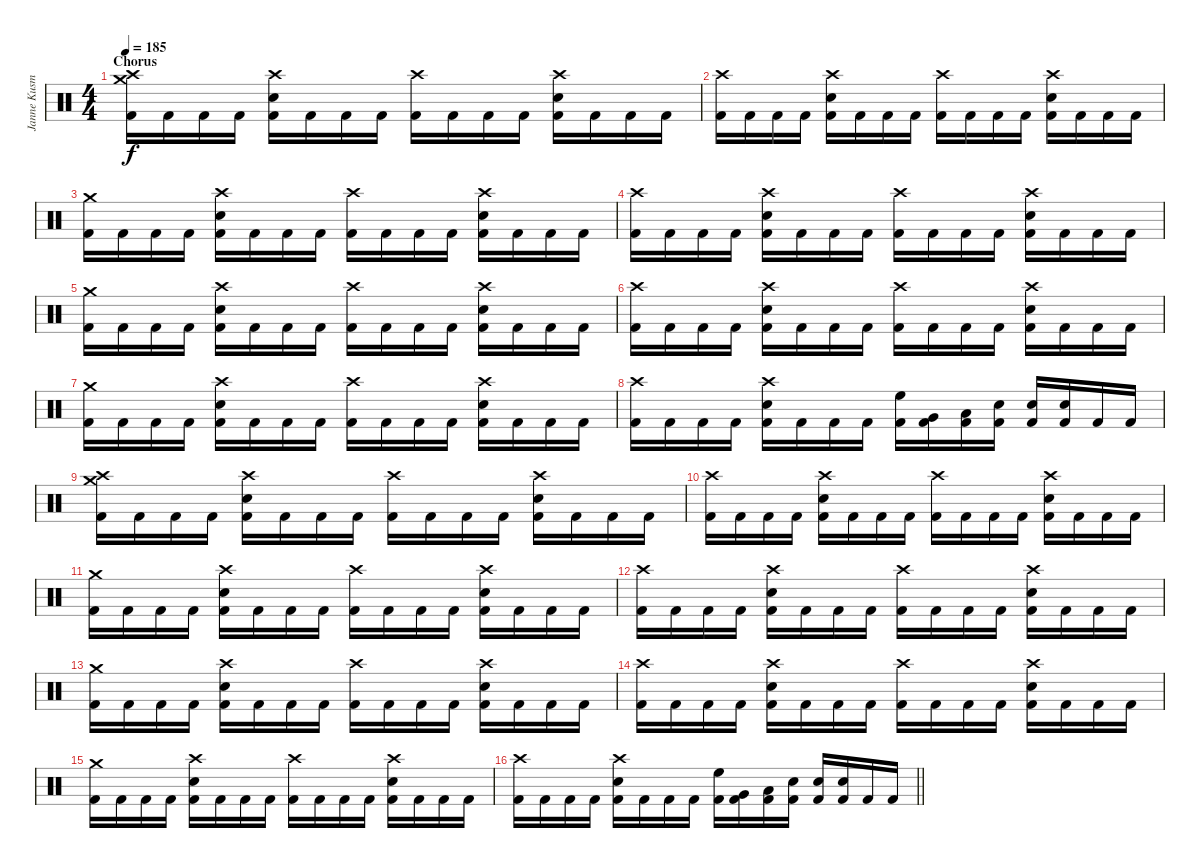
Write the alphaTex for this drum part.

\track ("Janne Kusmin" "Janne Kusm") {instrument percussion}
\staff {score}
\articulation defaults
\ts (4 4)
\section ("" "Chorus")
\tempo 185
\clef neutral
\ks c
("Crash medium (hit)" "Crash high (hit)" "Kick (hit) 2").16{dy f} "Kick (hit) 2".16 "Kick (hit) 2".16 "Kick (hit) 2".16 ("Crash high (hit)" "Electric Snare (hit)" "Kick (hit) 2").16 "Kick (hit) 2".16 "Kick (hit) 2".16 "Kick (hit) 2".16 ("Crash high (hit)" "Kick (hit) 2").16 "Kick (hit) 2".16 "Kick (hit) 2".16 "Kick (hit) 2".16 ("Crash high (hit)" "Electric Snare (hit)" "Kick (hit) 2").16 "Kick (hit) 2".16 "Kick (hit) 2".16 "Kick (hit) 2".16 |
("Crash high (hit)" "Kick (hit) 2").16 "Kick (hit) 2".16 "Kick (hit) 2".16 "Kick (hit) 2".16 ("Crash high (hit)" "Electric Snare (hit)" "Kick (hit) 2").16 "Kick (hit) 2".16 "Kick (hit) 2".16 "Kick (hit) 2".16 ("Crash high (hit)" "Kick (hit) 2").16 "Kick (hit) 2".16 "Kick (hit) 2".16 "Kick (hit) 2".16 ("Crash high (hit)" "Electric Snare (hit)" "Kick (hit) 2").16 "Kick (hit) 2".16 "Kick (hit) 2".16 "Kick (hit) 2".16 |
("Crash medium (hit)" "Kick (hit) 2").16 "Kick (hit) 2".16 "Kick (hit) 2".16 "Kick (hit) 2".16 ("Crash high (hit)" "Electric Snare (hit)" "Kick (hit) 2").16 "Kick (hit) 2".16 "Kick (hit) 2".16 "Kick (hit) 2".16 ("Crash high (hit)" "Kick (hit) 2").16 "Kick (hit) 2".16 "Kick (hit) 2".16 "Kick (hit) 2".16 ("Crash high (hit)" "Electric Snare (hit)" "Kick (hit) 2").16 "Kick (hit) 2".16 "Kick (hit) 2".16 "Kick (hit) 2".16 |
("Crash high (hit)" "Kick (hit) 2").16 "Kick (hit) 2".16 "Kick (hit) 2".16 "Kick (hit) 2".16 ("Crash high (hit)" "Electric Snare (hit)" "Kick (hit) 2").16 "Kick (hit) 2".16 "Kick (hit) 2".16 "Kick (hit) 2".16 ("Crash high (hit)" "Kick (hit) 2").16 "Kick (hit) 2".16 "Kick (hit) 2".16 "Kick (hit) 2".16 ("Crash high (hit)" "Electric Snare (hit)" "Kick (hit) 2").16 "Kick (hit) 2".16 "Kick (hit) 2".16 "Kick (hit) 2".16 |
("Crash medium (hit)" "Kick (hit) 2").16 "Kick (hit) 2".16 "Kick (hit) 2".16 "Kick (hit) 2".16 ("Crash high (hit)" "Electric Snare (hit)" "Kick (hit) 2").16 "Kick (hit) 2".16 "Kick (hit) 2".16 "Kick (hit) 2".16 ("Crash high (hit)" "Kick (hit) 2").16 "Kick (hit) 2".16 "Kick (hit) 2".16 "Kick (hit) 2".16 ("Crash high (hit)" "Electric Snare (hit)" "Kick (hit) 2").16 "Kick (hit) 2".16 "Kick (hit) 2".16 "Kick (hit) 2".16 |
("Crash high (hit)" "Kick (hit) 2").16 "Kick (hit) 2".16 "Kick (hit) 2".16 "Kick (hit) 2".16 ("Crash high (hit)" "Electric Snare (hit)" "Kick (hit) 2").16 "Kick (hit) 2".16 "Kick (hit) 2".16 "Kick (hit) 2".16 ("Crash high (hit)" "Kick (hit) 2").16 "Kick (hit) 2".16 "Kick (hit) 2".16 "Kick (hit) 2".16 ("Crash high (hit)" "Electric Snare (hit)" "Kick (hit) 2").16 "Kick (hit) 2".16 "Kick (hit) 2".16 "Kick (hit) 2".16 |
("Crash medium (hit)" "Kick (hit) 2").16 "Kick (hit) 2".16 "Kick (hit) 2".16 "Kick (hit) 2".16 ("Crash high (hit)" "Electric Snare (hit)" "Kick (hit) 2").16 "Kick (hit) 2".16 "Kick (hit) 2".16 "Kick (hit) 2".16 ("Crash high (hit)" "Kick (hit) 2").16 "Kick (hit) 2".16 "Kick (hit) 2".16 "Kick (hit) 2".16 ("Crash high (hit)" "Electric Snare (hit)" "Kick (hit) 2").16 "Kick (hit) 2".16 "Kick (hit) 2".16 "Kick (hit) 2".16 |
("Crash high (hit)" "Kick (hit) 2").16 "Kick (hit) 2".16 "Kick (hit) 2".16 "Kick (hit) 2".16 ("Crash high (hit)" "Electric Snare (hit)" "Kick (hit) 2").16 "Kick (hit) 2".16 "Kick (hit) 2".16 "Kick (hit) 2".16 ("High Floor Tom (hit)" "Kick (hit) 2").16 ("Very Low Tom (hit)" "Kick (hit) 2").16 ("Low Floor Tom (hit)" "Kick (hit) 2").16 ("Electric Snare (hit)" "Kick (hit) 2").16 ("Electric Snare (hit)" "Kick (hit) 2").16 ("Electric Snare (hit)" "Kick (hit) 2").16 "Kick (hit) 2".16 "Kick (hit) 2".16 |
("Crash medium (hit)" "Crash high (hit)" "Kick (hit) 2").16 "Kick (hit) 2".16 "Kick (hit) 2".16 "Kick (hit) 2".16 ("Crash high (hit)" "Electric Snare (hit)" "Kick (hit) 2").16 "Kick (hit) 2".16 "Kick (hit) 2".16 "Kick (hit) 2".16 ("Crash high (hit)" "Kick (hit) 2").16 "Kick (hit) 2".16 "Kick (hit) 2".16 "Kick (hit) 2".16 ("Crash high (hit)" "Electric Snare (hit)" "Kick (hit) 2").16 "Kick (hit) 2".16 "Kick (hit) 2".16 "Kick (hit) 2".16 |
("Crash high (hit)" "Kick (hit) 2").16 "Kick (hit) 2".16 "Kick (hit) 2".16 "Kick (hit) 2".16 ("Crash high (hit)" "Electric Snare (hit)" "Kick (hit) 2").16 "Kick (hit) 2".16 "Kick (hit) 2".16 "Kick (hit) 2".16 ("Crash high (hit)" "Kick (hit) 2").16 "Kick (hit) 2".16 "Kick (hit) 2".16 "Kick (hit) 2".16 ("Crash high (hit)" "Electric Snare (hit)" "Kick (hit) 2").16 "Kick (hit) 2".16 "Kick (hit) 2".16 "Kick (hit) 2".16 |
("Crash medium (hit)" "Kick (hit) 2").16 "Kick (hit) 2".16 "Kick (hit) 2".16 "Kick (hit) 2".16 ("Crash high (hit)" "Electric Snare (hit)" "Kick (hit) 2").16 "Kick (hit) 2".16 "Kick (hit) 2".16 "Kick (hit) 2".16 ("Crash high (hit)" "Kick (hit) 2").16 "Kick (hit) 2".16 "Kick (hit) 2".16 "Kick (hit) 2".16 ("Crash high (hit)" "Electric Snare (hit)" "Kick (hit) 2").16 "Kick (hit) 2".16 "Kick (hit) 2".16 "Kick (hit) 2".16 |
("Crash high (hit)" "Kick (hit) 2").16 "Kick (hit) 2".16 "Kick (hit) 2".16 "Kick (hit) 2".16 ("Crash high (hit)" "Electric Snare (hit)" "Kick (hit) 2").16 "Kick (hit) 2".16 "Kick (hit) 2".16 "Kick (hit) 2".16 ("Crash high (hit)" "Kick (hit) 2").16 "Kick (hit) 2".16 "Kick (hit) 2".16 "Kick (hit) 2".16 ("Crash high (hit)" "Electric Snare (hit)" "Kick (hit) 2").16 "Kick (hit) 2".16 "Kick (hit) 2".16 "Kick (hit) 2".16 |
("Crash medium (hit)" "Kick (hit) 2").16 "Kick (hit) 2".16 "Kick (hit) 2".16 "Kick (hit) 2".16 ("Crash high (hit)" "Electric Snare (hit)" "Kick (hit) 2").16 "Kick (hit) 2".16 "Kick (hit) 2".16 "Kick (hit) 2".16 ("Crash high (hit)" "Kick (hit) 2").16 "Kick (hit) 2".16 "Kick (hit) 2".16 "Kick (hit) 2".16 ("Crash high (hit)" "Electric Snare (hit)" "Kick (hit) 2").16 "Kick (hit) 2".16 "Kick (hit) 2".16 "Kick (hit) 2".16 |
("Crash high (hit)" "Kick (hit) 2").16 "Kick (hit) 2".16 "Kick (hit) 2".16 "Kick (hit) 2".16 ("Crash high (hit)" "Electric Snare (hit)" "Kick (hit) 2").16 "Kick (hit) 2".16 "Kick (hit) 2".16 "Kick (hit) 2".16 ("Crash high (hit)" "Kick (hit) 2").16 "Kick (hit) 2".16 "Kick (hit) 2".16 "Kick (hit) 2".16 ("Crash high (hit)" "Electric Snare (hit)" "Kick (hit) 2").16 "Kick (hit) 2".16 "Kick (hit) 2".16 "Kick (hit) 2".16 |
("Crash medium (hit)" "Kick (hit) 2").16 "Kick (hit) 2".16 "Kick (hit) 2".16 "Kick (hit) 2".16 ("Crash high (hit)" "Electric Snare (hit)" "Kick (hit) 2").16 "Kick (hit) 2".16 "Kick (hit) 2".16 "Kick (hit) 2".16 ("Crash high (hit)" "Kick (hit) 2").16 "Kick (hit) 2".16 "Kick (hit) 2".16 "Kick (hit) 2".16 ("Crash high (hit)" "Electric Snare (hit)" "Kick (hit) 2").16 "Kick (hit) 2".16 "Kick (hit) 2".16 "Kick (hit) 2".16 |
\barLineRight lightlight
("Crash high (hit)" "Kick (hit) 2").16 "Kick (hit) 2".16 "Kick (hit) 2".16 "Kick (hit) 2".16 ("Crash high (hit)" "Electric Snare (hit)" "Kick (hit) 2").16 "Kick (hit) 2".16 "Kick (hit) 2".16 "Kick (hit) 2".16 ("High Floor Tom (hit)" "Kick (hit) 2").16 ("Very Low Tom (hit)" "Kick (hit) 2").16 ("Low Floor Tom (hit)" "Kick (hit) 2").16 ("Electric Snare (hit)" "Kick (hit) 2").16 ("Electric Snare (hit)" "Kick (hit) 2").16 ("Electric Snare (hit)" "Kick (hit) 2").16 "Kick (hit) 2".16 "Kick (hit) 2".16
